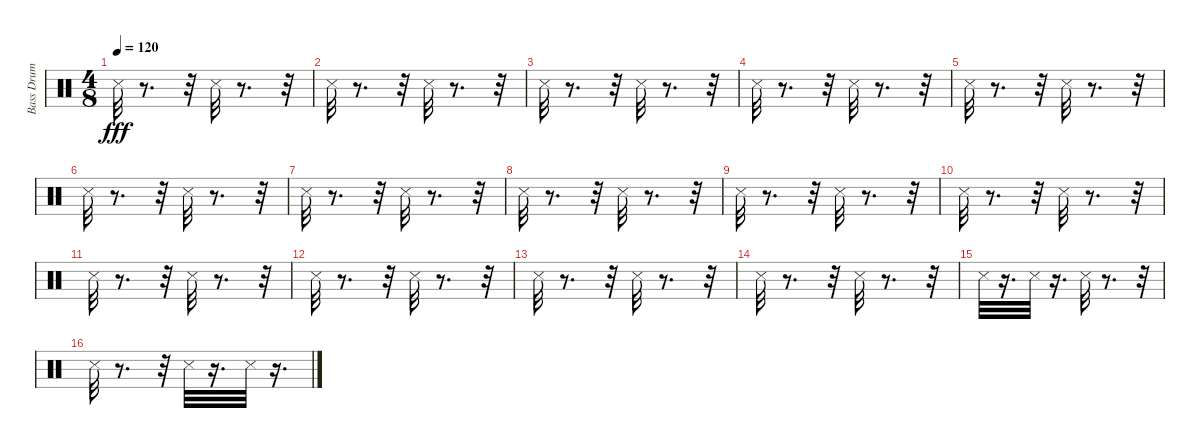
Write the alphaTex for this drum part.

\track ("Bass Drum" "Bass Drum") {instrument percussion}
\staff {score}
\articulation defaults
\ts (4 8)
\tempo 120
\clef neutral
\ks c "Metronome (hit)".32{dy fff}
r.8{d} r.32 "Metronome (hit)".32 r.8{d} r.32 |
"Metronome (hit)".32 r.8{d} r.32 "Metronome (hit)".32 r.8{d} r.32 |
"Metronome (hit)".32 r.8{d} r.32 "Metronome (hit)".32 r.8{d} r.32 |
"Metronome (hit)".32 r.8{d} r.32 "Metronome (hit)".32 r.8{d} r.32 |
"Metronome (hit)".32 r.8{d} r.32 "Metronome (hit)".32 r.8{d} r.32 |
"Metronome (hit)".32 r.8{d} r.32 "Metronome (hit)".32 r.8{d} r.32 |
"Metronome (hit)".32 r.8{d} r.32 "Metronome (hit)".32 r.8{d} r.32 |
"Metronome (hit)".32 r.8{d} r.32 "Metronome (hit)".32 r.8{d} r.32 |
"Metronome (hit)".32 r.8{d} r.32 "Metronome (hit)".32 r.8{d} r.32 |
"Metronome (hit)".32 r.8{d} r.32 "Metronome (hit)".32 r.8{d} r.32 |
"Metronome (hit)".32 r.8{d} r.32 "Metronome (hit)".32 r.8{d} r.32 |
"Metronome (hit)".32 r.8{d} r.32 "Metronome (hit)".32 r.8{d} r.32 |
"Metronome (hit)".32 r.8{d} r.32 "Metronome (hit)".32 r.8{d} r.32 |
"Metronome (hit)".32 r.8{d} r.32 "Metronome (hit)".32 r.8{d} r.32 |
"Metronome (hit)".32 r.16{d} "Metronome (hit)".32 r.16{d} "Metronome (hit)".32 r.8{d} r.32 |
"Metronome (hit)".32 r.8{d} r.32 "Metronome (hit)".32 r.16{d} "Metronome (hit)".32 r.16{d}
